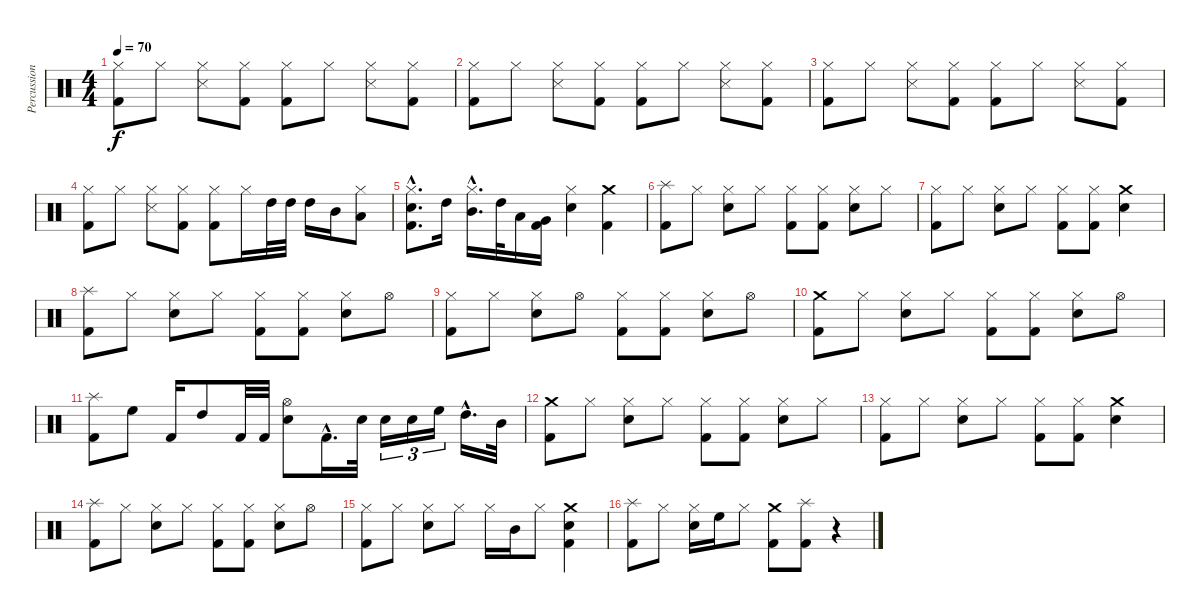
\track ("Percussion" "Percussion") {instrument percussion}
\staff {score}
\articulation defaults
\ts (4 4)
\tempo 70
\clef neutral
\ks c
("Hi-Hat (closed)" "Kick (hit) 2").8{dy f} "Hi-Hat (closed)".8 ("Hi-Hat (closed)" "Snare (side stick) 3").8 ("Hi-Hat (closed)" "Kick (hit) 2").8 ("Hi-Hat (closed)" "Kick (hit) 2").8 "Hi-Hat (closed)".8 ("Hi-Hat (closed)" "Snare (side stick) 3").8 ("Hi-Hat (closed)" "Kick (hit) 2").8 |
("Hi-Hat (closed)" "Kick (hit) 2").8 "Hi-Hat (closed)".8 ("Hi-Hat (closed)" "Snare (side stick) 3").8 ("Hi-Hat (closed)" "Kick (hit) 2").8 ("Hi-Hat (closed)" "Kick (hit) 2").8 "Hi-Hat (closed)".8 ("Hi-Hat (closed)" "Snare (side stick) 3").8 ("Hi-Hat (closed)" "Kick (hit) 2").8 |
("Hi-Hat (closed)" "Kick (hit) 2").8 "Hi-Hat (closed)".8 ("Hi-Hat (closed)" "Snare (side stick) 3").8 ("Hi-Hat (closed)" "Kick (hit) 2").8 ("Hi-Hat (closed)" "Kick (hit) 2").8 "Hi-Hat (closed)".8 ("Hi-Hat (closed)" "Snare (side stick) 3").8 ("Hi-Hat (closed)" "Kick (hit) 2").8 |
("Hi-Hat (closed)" "Kick (hit) 2").8 "Hi-Hat (closed)".8 ("Hi-Hat (closed)" "Snare (side stick) 3").8 ("Hi-Hat (closed)" "Kick (hit) 2").8 ("Hi-Hat (closed)" "Kick (hit) 2").8 "Hi-Hat (closed)".16 "High Tom (hit)".32 "High Tom (hit)".32 "High Tom (hit)".16 "Mid Tom (hit)".16 ("Hi-Hat (closed)" "Low Tom (hit)").8 |
("Hi-Hat (closed)"{hac} "Snare (hit) 2"{hac} "Kick (hit) 2"{hac}).8{d} "High Tom (hit)".16 ("Hi-Hat (closed)"{hac} "Mid Tom (hit)"{hac}).16{d} "High Tom (hit)".32 "Low Tom (hit)".16 ("Very Low Tom (hit)" "Kick (hit) 2").16 ("Hi-Hat (closed)" "Snare (hit) 2").4 ("Crash medium (hit)" "Kick (hit) 2").4 |
("Splash (hit)" "Kick (hit) 2").8 "Hi-Hat (closed)".8 ("Hi-Hat (closed)" "Snare (hit) 2").8 "Hi-Hat (closed)".8 ("Hi-Hat (closed)" "Kick (hit) 2").8 ("Hi-Hat (closed)" "Kick (hit) 2").8 ("Hi-Hat (closed)" "Snare (hit) 2").8 "Hi-Hat (closed)".8 |
("Hi-Hat (closed)" "Kick (hit) 2").8 "Hi-Hat (closed)".8 ("Hi-Hat (closed)" "Snare (hit) 2").8 "Hi-Hat (closed)".8 ("Hi-Hat (closed)" "Kick (hit) 2").8 ("Hi-Hat (closed)" "Kick (hit) 2").8 ("Crash medium (hit)" "Snare (hit) 2").4 |
("Splash (hit)" "Kick (hit) 2").8 "Hi-Hat (closed)".8 ("Hi-Hat (closed)" "Snare (hit) 2").8 "Hi-Hat (closed)".8 ("Hi-Hat (closed)" "Kick (hit) 2").8 ("Hi-Hat (closed)" "Kick (hit) 2").8 ("Hi-Hat (closed)" "Snare (hit) 2").8 "Hi-Hat (open)".8 |
("Hi-Hat (closed)" "Kick (hit) 2").8 "Hi-Hat (closed)".8 ("Hi-Hat (closed)" "Snare (hit) 2").8 "Hi-Hat (open)".8 ("Hi-Hat (closed)" "Kick (hit) 2").8 ("Hi-Hat (closed)" "Kick (hit) 2").8 ("Hi-Hat (closed)" "Snare (hit) 2").8 "Hi-Hat (open)".8 |
("Crash medium (hit)" "Kick (hit) 2").8 "Hi-Hat (closed)".8 ("Hi-Hat (closed)" "Snare (hit) 2").8 "Hi-Hat (closed)".8 ("Hi-Hat (closed)" "Kick (hit) 2").8 ("Hi-Hat (closed)" "Kick (hit) 2").8 ("Hi-Hat (closed)" "Snare (hit) 2").8 "Hi-Hat (open)".8 |
("Splash (hit)" "Kick (hit) 2").8 "High Floor Tom (hit)".8 "Kick (hit) 2".16 "High Tom (hit)".8 "Kick (hit) 2".32 "Kick (hit) 2".32 ("Hi-Hat (open)" "Snare (hit) 2").8 "Kick (hit) 2"{hac}.16{d} "Snare (hit) 2".32 "Snare (hit) 2".16{tu (3 2)} "Snare (hit) 2".16{tu (3 2)} "High Floor Tom (hit)".16{tu (3 2)} "High Tom (hit)"{hac}.16{d} "Mid Tom (hit)".32 |
("Crash medium (hit)" "Kick (hit) 2").8 "Hi-Hat (closed)".8 ("Hi-Hat (closed)" "Snare (hit) 2").8 "Hi-Hat (closed)".8 ("Hi-Hat (closed)" "Kick (hit) 2").8 ("Hi-Hat (closed)" "Kick (hit) 2").8 ("Hi-Hat (closed)" "Snare (hit) 2").8 "Hi-Hat (closed)".8 |
("Hi-Hat (closed)" "Kick (hit) 2").8 "Hi-Hat (closed)".8 ("Hi-Hat (closed)" "Snare (hit) 2").8 "Hi-Hat (closed)".8 ("Hi-Hat (closed)" "Kick (hit) 2").8 ("Hi-Hat (closed)" "Kick (hit) 2").8 ("Crash medium (hit)" "Snare (hit) 2").4 |
("Splash (hit)" "Kick (hit) 2").8 "Hi-Hat (closed)".8 ("Hi-Hat (closed)" "Snare (hit) 2").8 "Hi-Hat (closed)".8 ("Hi-Hat (closed)" "Kick (hit) 2").8 ("Hi-Hat (closed)" "Kick (hit) 2").8 ("Hi-Hat (closed)" "Snare (hit) 2").8 "Hi-Hat (open)".8 |
("Hi-Hat (closed)" "Kick (hit) 2").8 "Hi-Hat (closed)".8 ("Hi-Hat (closed)" "Snare (hit) 2").8 "Hi-Hat (closed)".8 "Hi-Hat (closed)".16 "Mid Tom (hit)".16 "Hi-Hat (closed)".8 ("Crash medium (hit)" "Snare (hit) 2" "Kick (hit) 2").4 |
("Splash (hit)" "Kick (hit) 2").8 "Hi-Hat (closed)".8 ("Hi-Hat (closed)" "Snare (hit) 2").16 "High Floor Tom (hit)".16 "Hi-Hat (closed)".8 ("Crash medium (hit)" "Kick (hit) 2").8 ("Splash (hit)" "Kick (hit) 2").8 r.4
